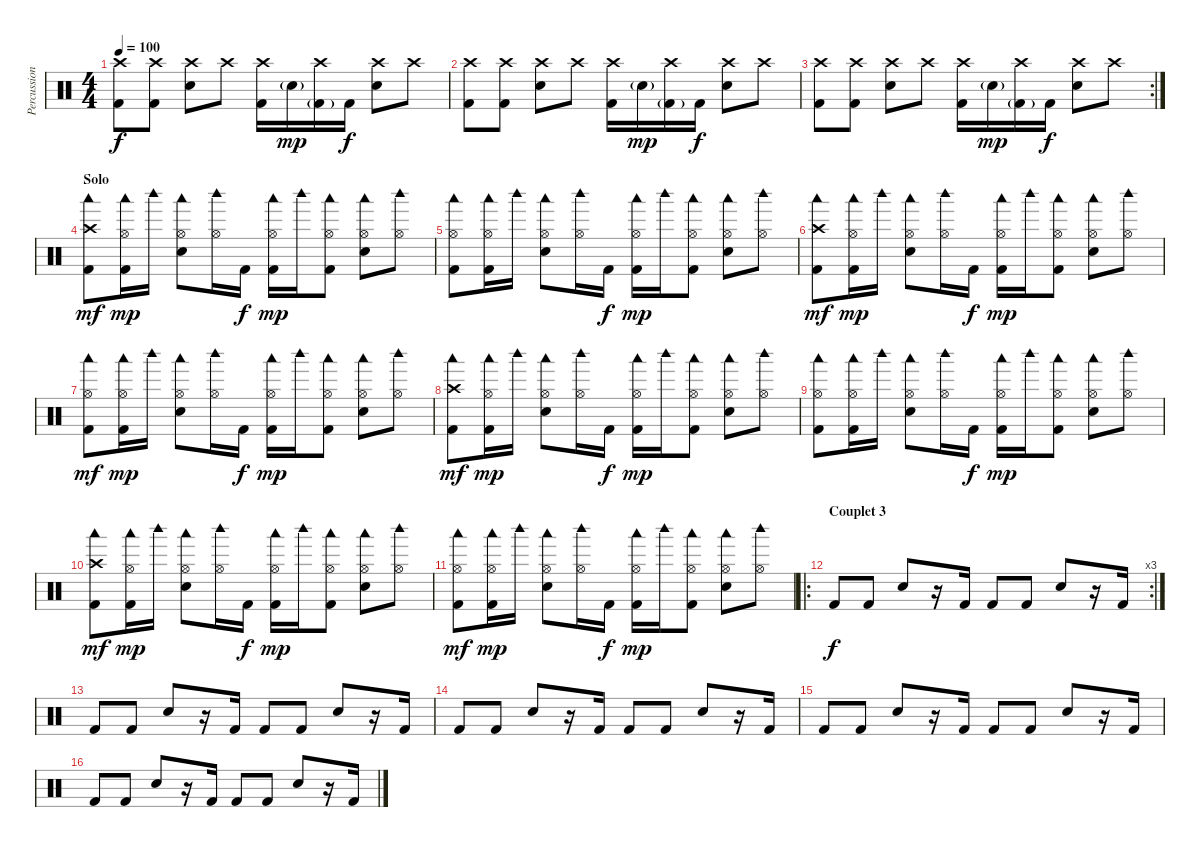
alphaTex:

\track ("Percussions" "Percussion") {instrument percussion}
\staff {score}
\articulation defaults
\ts (4 4)
\tempo 100
\clef neutral
\ks c
("Crash high (hit)" "Kick (hit) 2").8{dy f} ("Crash high (hit)" "Kick (hit) 2").8 ("Crash high (hit)" "Electric Snare (hit)").8 "Crash high (hit)".8 ("Crash high (hit)" "Kick (hit) 2").16 "Electric Snare (hit)"{g}.16{dy mp} ("Crash high (hit)" "Kick (hit) 2"{g}).16 "Kick (hit) 2".16{dy f} ("Crash high (hit)" "Electric Snare (hit)").8 "Crash high (hit)".8 |
("Crash high (hit)" "Kick (hit) 2").8 ("Crash high (hit)" "Kick (hit) 2").8 ("Crash high (hit)" "Electric Snare (hit)").8 "Crash high (hit)".8 ("Crash high (hit)" "Kick (hit) 2").16 "Electric Snare (hit)"{g}.16{dy mp} ("Crash high (hit)" "Kick (hit) 2"{g}).16 "Kick (hit) 2".16{dy f} ("Crash high (hit)" "Electric Snare (hit)").8 "Crash high (hit)".8 |
\rc 2
("Crash high (hit)" "Kick (hit) 2").8 ("Crash high (hit)" "Kick (hit) 2").8 ("Crash high (hit)" "Electric Snare (hit)").8 "Crash high (hit)".8 ("Crash high (hit)" "Kick (hit) 2").16 "Electric Snare (hit)"{g}.16{dy mp} ("Crash high (hit)" "Kick (hit) 2"{g}).16 "Kick (hit) 2".16{dy f} ("Crash high (hit)" "Electric Snare (hit)").8 "Crash high (hit)".8 |
\section ("" "Solo")
("Woodblock low (hit)" "Crash high (hit)" "Kick (hit) 2").8{dy mf} ("Woodblock low (hit)" "Hi-Hat (open)" "Kick (hit) 2").16{dy mp} "Woodblock high (hit)".16 ("Woodblock low (hit)" "Hi-Hat (open)" "Electric Snare (hit)").8 ("Woodblock high (hit)" "Hi-Hat (open)").16 "Kick (hit) 2".16{dy f} ("Woodblock low (hit)" "Hi-Hat (open)" "Kick (hit) 2").16{dy mp} "Woodblock high (hit)".16 ("Woodblock low (hit)" "Hi-Hat (open)" "Kick (hit) 2").8 ("Woodblock low (hit)" "Hi-Hat (open)" "Electric Snare (hit)").8 ("Woodblock high (hit)" "Hi-Hat (open)").8 |
("Woodblock low (hit)" "Hi-Hat (open)" "Kick (hit) 2").8 ("Woodblock low (hit)" "Hi-Hat (open)" "Kick (hit) 2").16 "Woodblock high (hit)".16 ("Woodblock low (hit)" "Hi-Hat (open)" "Electric Snare (hit)").8 ("Woodblock high (hit)" "Hi-Hat (open)").16 "Kick (hit) 2".16{dy f} ("Woodblock low (hit)" "Hi-Hat (open)" "Kick (hit) 2").16{dy mp} "Woodblock high (hit)".16 ("Woodblock low (hit)" "Hi-Hat (open)" "Kick (hit) 2").8 ("Woodblock low (hit)" "Hi-Hat (open)" "Electric Snare (hit)").8 ("Woodblock high (hit)" "Hi-Hat (open)").8 |
("Woodblock low (hit)" "Crash high (hit)" "Kick (hit) 2").8{dy mf} ("Woodblock low (hit)" "Hi-Hat (open)" "Kick (hit) 2").16{dy mp} "Woodblock high (hit)".16 ("Woodblock low (hit)" "Hi-Hat (open)" "Electric Snare (hit)").8 ("Woodblock high (hit)" "Hi-Hat (open)").16 "Kick (hit) 2".16{dy f} ("Woodblock low (hit)" "Hi-Hat (open)" "Kick (hit) 2").16{dy mp} "Woodblock high (hit)".16 ("Woodblock low (hit)" "Hi-Hat (open)" "Kick (hit) 2").8 ("Woodblock low (hit)" "Hi-Hat (open)" "Electric Snare (hit)").8 ("Woodblock high (hit)" "Hi-Hat (open)").8 |
("Woodblock low (hit)" "Hi-Hat (open)" "Kick (hit) 2").8{dy mf} ("Woodblock low (hit)" "Hi-Hat (open)" "Kick (hit) 2").16{dy mp} "Woodblock high (hit)".16 ("Woodblock low (hit)" "Hi-Hat (open)" "Electric Snare (hit)").8 ("Woodblock high (hit)" "Hi-Hat (open)").16 "Kick (hit) 2".16{dy f} ("Woodblock low (hit)" "Hi-Hat (open)" "Kick (hit) 2").16{dy mp} "Woodblock high (hit)".16 ("Woodblock low (hit)" "Hi-Hat (open)" "Kick (hit) 2").8 ("Woodblock low (hit)" "Hi-Hat (open)" "Electric Snare (hit)").8 ("Woodblock high (hit)" "Hi-Hat (open)").8 |
("Woodblock low (hit)" "Crash high (hit)" "Kick (hit) 2").8{dy mf} ("Woodblock low (hit)" "Hi-Hat (open)" "Kick (hit) 2").16{dy mp} "Woodblock high (hit)".16 ("Woodblock low (hit)" "Hi-Hat (open)" "Electric Snare (hit)").8 ("Woodblock high (hit)" "Hi-Hat (open)").16 "Kick (hit) 2".16{dy f} ("Woodblock low (hit)" "Hi-Hat (open)" "Kick (hit) 2").16{dy mp} "Woodblock high (hit)".16 ("Woodblock low (hit)" "Hi-Hat (open)" "Kick (hit) 2").8 ("Woodblock low (hit)" "Hi-Hat (open)" "Electric Snare (hit)").8 ("Woodblock high (hit)" "Hi-Hat (open)").8 |
("Woodblock low (hit)" "Hi-Hat (open)" "Kick (hit) 2").8 ("Woodblock low (hit)" "Hi-Hat (open)" "Kick (hit) 2").16 "Woodblock high (hit)".16 ("Woodblock low (hit)" "Hi-Hat (open)" "Electric Snare (hit)").8 ("Woodblock high (hit)" "Hi-Hat (open)").16 "Kick (hit) 2".16{dy f} ("Woodblock low (hit)" "Hi-Hat (open)" "Kick (hit) 2").16{dy mp} "Woodblock high (hit)".16 ("Woodblock low (hit)" "Hi-Hat (open)" "Kick (hit) 2").8 ("Woodblock low (hit)" "Hi-Hat (open)" "Electric Snare (hit)").8 ("Woodblock high (hit)" "Hi-Hat (open)").8 |
("Woodblock low (hit)" "Crash high (hit)" "Kick (hit) 2").8{dy mf} ("Woodblock low (hit)" "Hi-Hat (open)" "Kick (hit) 2").16{dy mp} "Woodblock high (hit)".16 ("Woodblock low (hit)" "Hi-Hat (open)" "Electric Snare (hit)").8 ("Woodblock high (hit)" "Hi-Hat (open)").16 "Kick (hit) 2".16{dy f} ("Woodblock low (hit)" "Hi-Hat (open)" "Kick (hit) 2").16{dy mp} "Woodblock high (hit)".16 ("Woodblock low (hit)" "Hi-Hat (open)" "Kick (hit) 2").8 ("Woodblock low (hit)" "Hi-Hat (open)" "Electric Snare (hit)").8 ("Woodblock high (hit)" "Hi-Hat (open)").8 |
("Woodblock low (hit)" "Hi-Hat (open)" "Kick (hit) 2").8{dy mf} ("Woodblock low (hit)" "Hi-Hat (open)" "Kick (hit) 2").16{dy mp} "Woodblock high (hit)".16 ("Woodblock low (hit)" "Hi-Hat (open)" "Electric Snare (hit)").8 ("Woodblock high (hit)" "Hi-Hat (open)").16 "Kick (hit) 2".16{dy f} ("Woodblock low (hit)" "Hi-Hat (open)" "Kick (hit) 2").16{dy mp} "Woodblock high (hit)".16 ("Woodblock low (hit)" "Hi-Hat (open)" "Kick (hit) 2").8 ("Woodblock low (hit)" "Hi-Hat (open)" "Electric Snare (hit)").8 ("Woodblock high (hit)" "Hi-Hat (open)").8 |
\ro
\rc 3
\section ("" "Couplet 3")
"Kick (hit) 2".8{dy f volume 9} "Kick (hit) 2".8 "Electric Snare (hit)".8 r.16 "Kick (hit) 2".16 "Kick (hit) 2".8 "Kick (hit) 2".8 "Electric Snare (hit)".8 r.16 "Kick (hit) 2".16 |
"Kick (hit) 2".8 "Kick (hit) 2".8 "Electric Snare (hit)".8 r.16 "Kick (hit) 2".16 "Kick (hit) 2".8 "Kick (hit) 2".8 "Electric Snare (hit)".8 r.16 "Kick (hit) 2".16 |
"Kick (hit) 2".8 "Kick (hit) 2".8 "Electric Snare (hit)".8 r.16 "Kick (hit) 2".16 "Kick (hit) 2".8 "Kick (hit) 2".8 "Electric Snare (hit)".8 r.16 "Kick (hit) 2".16 |
"Kick (hit) 2".8 "Kick (hit) 2".8 "Electric Snare (hit)".8 r.16 "Kick (hit) 2".16 "Kick (hit) 2".8 "Kick (hit) 2".8 "Electric Snare (hit)".8 r.16 "Kick (hit) 2".16 |
"Kick (hit) 2".8 "Kick (hit) 2".8 "Electric Snare (hit)".8 r.16 "Kick (hit) 2".16 "Kick (hit) 2".8 "Kick (hit) 2".8 "Electric Snare (hit)".8 r.16 "Kick (hit) 2".16{volume 12}
